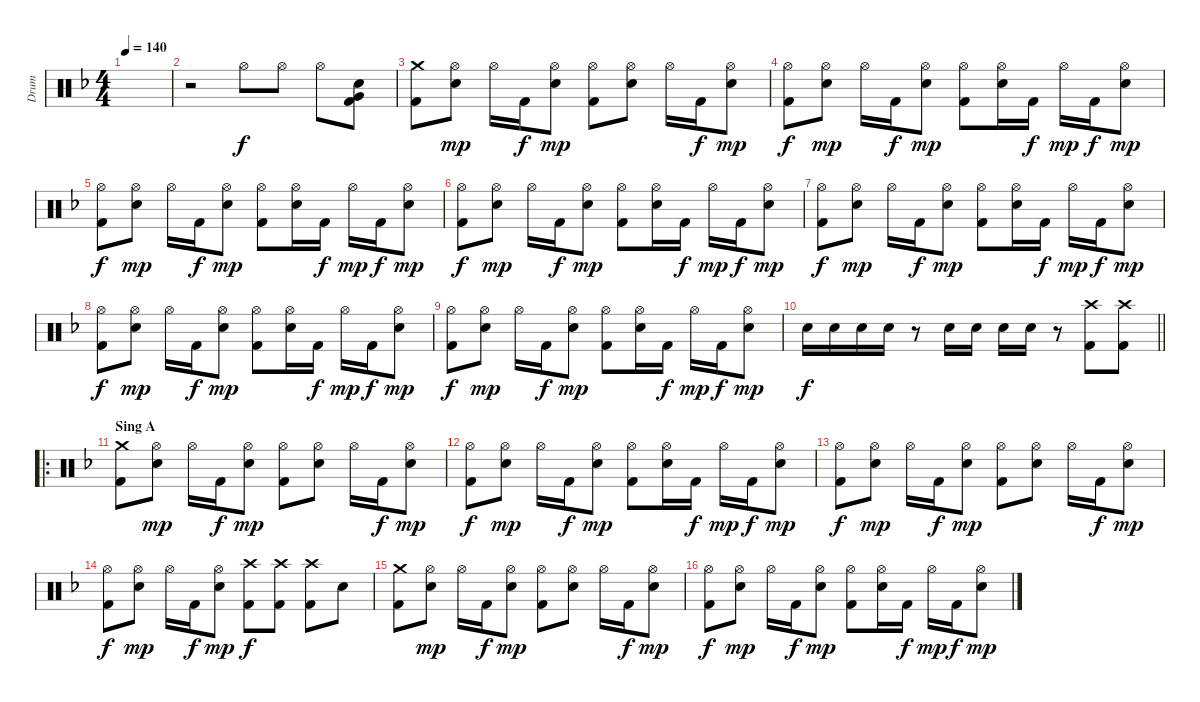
\track ("Drum" "Drum") {instrument percussion}
\staff {score}
\articulation defaults
\ts (4 4)
\tempo 140
\clef neutral
\ks dminor
|
r.2 "Hi-Hat (open)".8 "Hi-Hat (open)".8 "Hi-Hat (open)".8 ("Snare (hit) 2" "Very Low Tom (hit)" "Kick (hit) 2").8 |
("Crash medium (hit)" "Kick (hit) 2").8 ("Hi-Hat (open)" "Snare (hit) 2").8{dy mp} "Hi-Hat (open)".16 "Kick (hit) 2".16{dy f} ("Hi-Hat (open)" "Snare (hit) 2").8{dy mp} ("Hi-Hat (open)" "Kick (hit) 2").8 ("Hi-Hat (open)" "Snare (hit) 2").8 "Hi-Hat (open)".16 "Kick (hit) 2".16{dy f} ("Hi-Hat (open)" "Snare (hit) 2").8{dy mp} |
("Hi-Hat (open)" "Kick (hit) 2").8{dy f} ("Hi-Hat (open)" "Snare (hit) 2").8{dy mp} "Hi-Hat (open)".16 "Kick (hit) 2".16{dy f} ("Hi-Hat (open)" "Snare (hit) 2").8{dy mp} ("Hi-Hat (open)" "Kick (hit) 2").8 ("Hi-Hat (open)" "Snare (hit) 2").16 "Kick (hit) 2".16{dy f} "Hi-Hat (open)".16{dy mp} "Kick (hit) 2".16{dy f} ("Hi-Hat (open)" "Snare (hit) 2").8{dy mp} |
("Hi-Hat (open)" "Kick (hit) 2").8{dy f} ("Hi-Hat (open)" "Snare (hit) 2").8{dy mp} "Hi-Hat (open)".16 "Kick (hit) 2".16{dy f} ("Hi-Hat (open)" "Snare (hit) 2").8{dy mp} ("Hi-Hat (open)" "Kick (hit) 2").8 ("Hi-Hat (open)" "Snare (hit) 2").16 "Kick (hit) 2".16{dy f} "Hi-Hat (open)".16{dy mp} "Kick (hit) 2".16{dy f} ("Hi-Hat (open)" "Snare (hit) 2").8{dy mp} |
("Hi-Hat (open)" "Kick (hit) 2").8{dy f} ("Hi-Hat (open)" "Snare (hit) 2").8{dy mp} "Hi-Hat (open)".16 "Kick (hit) 2".16{dy f} ("Hi-Hat (open)" "Snare (hit) 2").8{dy mp} ("Hi-Hat (open)" "Kick (hit) 2").8 ("Hi-Hat (open)" "Snare (hit) 2").16 "Kick (hit) 2".16{dy f} "Hi-Hat (open)".16{dy mp} "Kick (hit) 2".16{dy f} ("Hi-Hat (open)" "Snare (hit) 2").8{dy mp} |
("Hi-Hat (open)" "Kick (hit) 2").8{dy f} ("Hi-Hat (open)" "Snare (hit) 2").8{dy mp} "Hi-Hat (open)".16 "Kick (hit) 2".16{dy f} ("Hi-Hat (open)" "Snare (hit) 2").8{dy mp} ("Hi-Hat (open)" "Kick (hit) 2").8 ("Hi-Hat (open)" "Snare (hit) 2").16 "Kick (hit) 2".16{dy f} "Hi-Hat (open)".16{dy mp} "Kick (hit) 2".16{dy f} ("Hi-Hat (open)" "Snare (hit) 2").8{dy mp} |
("Hi-Hat (open)" "Kick (hit) 2").8{dy f} ("Hi-Hat (open)" "Snare (hit) 2").8{dy mp} "Hi-Hat (open)".16 "Kick (hit) 2".16{dy f} ("Hi-Hat (open)" "Snare (hit) 2").8{dy mp} ("Hi-Hat (open)" "Kick (hit) 2").8 ("Hi-Hat (open)" "Snare (hit) 2").16 "Kick (hit) 2".16{dy f} "Hi-Hat (open)".16{dy mp} "Kick (hit) 2".16{dy f} ("Hi-Hat (open)" "Snare (hit) 2").8{dy mp} |
("Hi-Hat (open)" "Kick (hit) 2").8{dy f} ("Hi-Hat (open)" "Snare (hit) 2").8{dy mp} "Hi-Hat (open)".16 "Kick (hit) 2".16{dy f} ("Hi-Hat (open)" "Snare (hit) 2").8{dy mp} ("Hi-Hat (open)" "Kick (hit) 2").8 ("Hi-Hat (open)" "Snare (hit) 2").16 "Kick (hit) 2".16{dy f} "Hi-Hat (open)".16{dy mp} "Kick (hit) 2".16{dy f} ("Hi-Hat (open)" "Snare (hit) 2").8{dy mp} |
\barLineRight lightlight "Snare (hit) 2".16{dy f} "Snare (hit) 2".16 "Snare (hit) 2".16 "Snare (hit) 2".16
r.8 "Snare (hit) 2".16 "Snare (hit) 2".16 "Snare (hit) 2".16 "Snare (hit) 2".16 r.8 ("Crash high (hit)" "Kick (hit) 2").8 ("Crash high (hit)" "Kick (hit) 2").8 |
\ro
\section ("" "Sing A")
("Crash medium (hit)" "Kick (hit) 2").8 ("Hi-Hat (open)" "Snare (hit) 2").8{dy mp} "Hi-Hat (open)".16 "Kick (hit) 2".16{dy f} ("Hi-Hat (open)" "Snare (hit) 2").8{dy mp} ("Hi-Hat (open)" "Kick (hit) 2").8 ("Hi-Hat (open)" "Snare (hit) 2").8 "Hi-Hat (open)".16 "Kick (hit) 2".16{dy f} ("Hi-Hat (open)" "Snare (hit) 2").8{dy mp} |
("Hi-Hat (open)" "Kick (hit) 2").8{dy f} ("Hi-Hat (open)" "Snare (hit) 2").8{dy mp} "Hi-Hat (open)".16 "Kick (hit) 2".16{dy f} ("Hi-Hat (open)" "Snare (hit) 2").8{dy mp} ("Hi-Hat (open)" "Kick (hit) 2").8 ("Hi-Hat (open)" "Snare (hit) 2").16 "Kick (hit) 2".16{dy f} "Hi-Hat (open)".16{dy mp} "Kick (hit) 2".16{dy f} ("Hi-Hat (open)" "Snare (hit) 2").8{dy mp} |
("Hi-Hat (open)" "Kick (hit) 2").8{dy f} ("Hi-Hat (open)" "Snare (hit) 2").8{dy mp} "Hi-Hat (open)".16 "Kick (hit) 2".16{dy f} ("Hi-Hat (open)" "Snare (hit) 2").8{dy mp} ("Hi-Hat (open)" "Kick (hit) 2").8 ("Hi-Hat (open)" "Snare (hit) 2").8 "Hi-Hat (open)".16 "Kick (hit) 2".16{dy f} ("Hi-Hat (open)" "Snare (hit) 2").8{dy mp} |
("Hi-Hat (open)" "Kick (hit) 2").8{dy f} ("Hi-Hat (open)" "Snare (hit) 2").8{dy mp} "Hi-Hat (open)".16 "Kick (hit) 2".16{dy f} ("Hi-Hat (open)" "Snare (hit) 2").8{dy mp} ("Crash high (hit)" "Kick (hit) 2").8{dy f} ("Crash high (hit)" "Kick (hit) 2").8 ("Crash high (hit)" "Kick (hit) 2").8 "Snare (hit) 2".8 |
("Crash medium (hit)" "Kick (hit) 2").8 ("Hi-Hat (open)" "Snare (hit) 2").8{dy mp} "Hi-Hat (open)".16 "Kick (hit) 2".16{dy f} ("Hi-Hat (open)" "Snare (hit) 2").8{dy mp} ("Hi-Hat (open)" "Kick (hit) 2").8 ("Hi-Hat (open)" "Snare (hit) 2").8 "Hi-Hat (open)".16 "Kick (hit) 2".16{dy f} ("Hi-Hat (open)" "Snare (hit) 2").8{dy mp} |
("Hi-Hat (open)" "Kick (hit) 2").8{dy f} ("Hi-Hat (open)" "Snare (hit) 2").8{dy mp} "Hi-Hat (open)".16 "Kick (hit) 2".16{dy f} ("Hi-Hat (open)" "Snare (hit) 2").8{dy mp} ("Hi-Hat (open)" "Kick (hit) 2").8 ("Hi-Hat (open)" "Snare (hit) 2").16 "Kick (hit) 2".16{dy f} "Hi-Hat (open)".16{dy mp} "Kick (hit) 2".16{dy f} ("Hi-Hat (open)" "Snare (hit) 2").8{dy mp}
